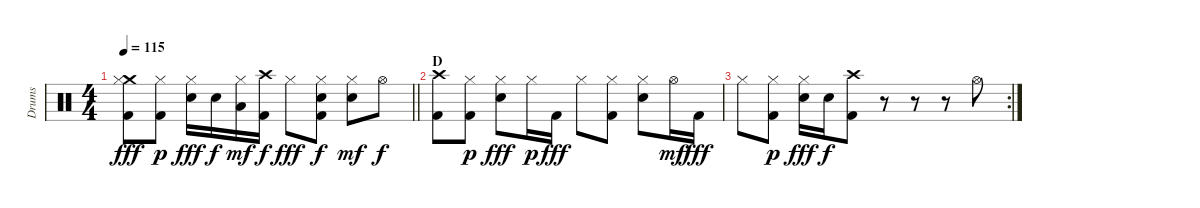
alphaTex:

\track ("Drums" "Drums") {instrument percussion}
\staff {score}
\articulation defaults
\ts (4 4)
\tempo 115
\clef neutral
\barLineRight lightlight
\ks c
("Crash medium (hit)" "Hi-Hat (closed)" "Kick (hit) 2").8{dy fff} ("Hi-Hat (closed)" "Kick (hit) 2").8{dy p} ("Hi-Hat (closed)" "Electric Snare (hit)").16{dy fff} "Electric Snare (hit)".16{dy f} ("Hi-Hat (closed)" "Low Tom (hit)").16{dy mf} ("Crash high (hit)" "Kick (hit) 2").16{dy f} "Hi-Hat (closed)".8{dy fff} ("Hi-Hat (closed)" "Electric Snare (hit)" "Kick (hit) 2").8{dy f} ("Hi-Hat (closed)" "Electric Snare (hit)").8{dy mf} "Hi-Hat (open)".8{dy f} |
\section ("" "D")
("Crash high (hit)" "Kick (hit) 2").8 ("Hi-Hat (closed)" "Kick (hit) 2").8{dy p} ("Hi-Hat (closed)" "Electric Snare (hit)").8{dy fff} "Hi-Hat (closed)".16{dy p} "Kick (hit) 2".16{dy fff} "Hi-Hat (closed)".8 ("Hi-Hat (closed)" "Kick (hit) 2").8 ("Hi-Hat (closed)" "Electric Snare (hit)").8 "Hi-Hat (open)".16{dy mf} "Kick (hit) 2".16{dy fff} |
\rc 2 "Hi-Hat (closed)".8
("Hi-Hat (closed)" "Kick (hit) 2").8{dy p} ("Hi-Hat (closed)" "Electric Snare (hit)").16{dy fff} "Electric Snare (hit)".16{dy f} ("Crash high (hit)" "Kick (hit) 2").8 r.8 r.8 r.8 "Hi-Hat (open)".8
